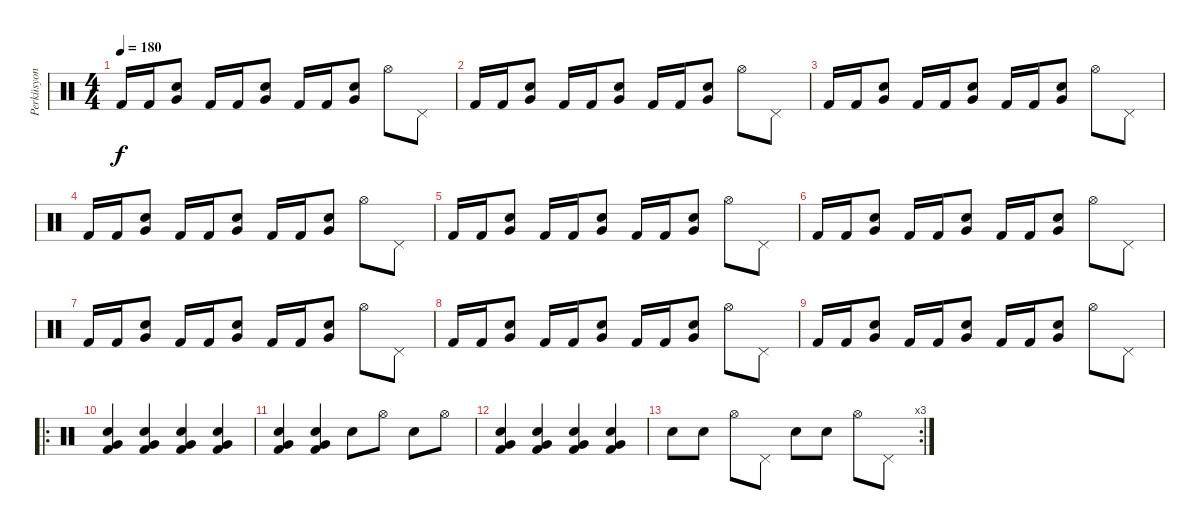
\track ("Perküsyon" "Perküsyon") {instrument percussion}
\staff {score}
\articulation defaults
\ts (4 4)
\tempo 180
\clef neutral
\ks c "Kick (hit) 2".16{dy f volume 8} "Kick (hit) 2".16
("Electric Snare (hit)" "Very Low Tom (hit)").8 "Kick (hit) 2".16 "Kick (hit) 2".16 ("Electric Snare (hit)" "Very Low Tom (hit)").8 "Kick (hit) 2".16 "Kick (hit) 2".16 ("Electric Snare (hit)" "Very Low Tom (hit)").8 "Hi-Hat (open)".8 "Pedal Hi-Hat (hit)".8 |
"Kick (hit) 2".16{volume 9} "Kick (hit) 2".16 ("Electric Snare (hit)" "Very Low Tom (hit)").8 "Kick (hit) 2".16 "Kick (hit) 2".16 ("Electric Snare (hit)" "Very Low Tom (hit)").8 "Kick (hit) 2".16 "Kick (hit) 2".16 ("Electric Snare (hit)" "Very Low Tom (hit)").8 "Hi-Hat (open)".8 "Pedal Hi-Hat (hit)".8 |
"Kick (hit) 2".16{volume 10} "Kick (hit) 2".16 ("Electric Snare (hit)" "Very Low Tom (hit)").8 "Kick (hit) 2".16 "Kick (hit) 2".16 ("Electric Snare (hit)" "Very Low Tom (hit)").8 "Kick (hit) 2".16 "Kick (hit) 2".16 ("Electric Snare (hit)" "Very Low Tom (hit)").8 "Hi-Hat (open)".8 "Pedal Hi-Hat (hit)".8 |
"Kick (hit) 2".16{volume 11} "Kick (hit) 2".16 ("Electric Snare (hit)" "Very Low Tom (hit)").8 "Kick (hit) 2".16 "Kick (hit) 2".16 ("Electric Snare (hit)" "Very Low Tom (hit)").8 "Kick (hit) 2".16 "Kick (hit) 2".16 ("Electric Snare (hit)" "Very Low Tom (hit)").8 "Hi-Hat (open)".8 "Pedal Hi-Hat (hit)".8 |
"Kick (hit) 2".16{volume 12} "Kick (hit) 2".16 ("Electric Snare (hit)" "Very Low Tom (hit)").8 "Kick (hit) 2".16 "Kick (hit) 2".16 ("Electric Snare (hit)" "Very Low Tom (hit)").8 "Kick (hit) 2".16 "Kick (hit) 2".16 ("Electric Snare (hit)" "Very Low Tom (hit)").8 "Hi-Hat (open)".8 "Pedal Hi-Hat (hit)".8 |
"Kick (hit) 2".16{volume 13} "Kick (hit) 2".16 ("Electric Snare (hit)" "Very Low Tom (hit)").8 "Kick (hit) 2".16 "Kick (hit) 2".16 ("Electric Snare (hit)" "Very Low Tom (hit)").8 "Kick (hit) 2".16 "Kick (hit) 2".16 ("Electric Snare (hit)" "Very Low Tom (hit)").8 "Hi-Hat (open)".8 "Pedal Hi-Hat (hit)".8 |
"Kick (hit) 2".16{volume 14} "Kick (hit) 2".16 ("Electric Snare (hit)" "Very Low Tom (hit)").8 "Kick (hit) 2".16 "Kick (hit) 2".16 ("Electric Snare (hit)" "Very Low Tom (hit)").8 "Kick (hit) 2".16 "Kick (hit) 2".16 ("Electric Snare (hit)" "Very Low Tom (hit)").8 "Hi-Hat (open)".8 "Pedal Hi-Hat (hit)".8 |
"Kick (hit) 2".16{volume 15} "Kick (hit) 2".16 ("Electric Snare (hit)" "Very Low Tom (hit)").8 "Kick (hit) 2".16 "Kick (hit) 2".16 ("Electric Snare (hit)" "Very Low Tom (hit)").8 "Kick (hit) 2".16 "Kick (hit) 2".16 ("Electric Snare (hit)" "Very Low Tom (hit)").8 "Hi-Hat (open)".8 "Pedal Hi-Hat (hit)".8 |
"Kick (hit) 2".16{volume 16} "Kick (hit) 2".16 ("Electric Snare (hit)" "Very Low Tom (hit)").8 "Kick (hit) 2".16 "Kick (hit) 2".16 ("Electric Snare (hit)" "Very Low Tom (hit)").8 "Kick (hit) 2".16 "Kick (hit) 2".16 ("Electric Snare (hit)" "Very Low Tom (hit)").8 "Hi-Hat (open)".8 "Pedal Hi-Hat (hit)".8 |
\ro
("Kick (hit) 2" "Very Low Tom (hit)" "Electric Snare (hit)").4 ("Kick (hit) 2" "Very Low Tom (hit)" "Electric Snare (hit)").4 ("Kick (hit) 2" "Very Low Tom (hit)" "Electric Snare (hit)").4 ("Kick (hit) 2" "Very Low Tom (hit)" "Electric Snare (hit)").4 |
("Kick (hit) 2" "Very Low Tom (hit)" "Electric Snare (hit)").4 ("Kick (hit) 2" "Very Low Tom (hit)" "Electric Snare (hit)").4 "Electric Snare (hit)".8 "Hi-Hat (open)".8 "Electric Snare (hit)".8 "Hi-Hat (open)".8 |
("Kick (hit) 2" "Very Low Tom (hit)" "Electric Snare (hit)").4 ("Kick (hit) 2" "Very Low Tom (hit)" "Electric Snare (hit)").4 ("Kick (hit) 2" "Very Low Tom (hit)" "Electric Snare (hit)").4 ("Kick (hit) 2" "Very Low Tom (hit)" "Electric Snare (hit)").4 |
\rc 3 "Electric Snare (hit)".8 "Electric Snare (hit)".8 "Hi-Hat (open)".8 "Pedal Hi-Hat (hit)".8 "Electric Snare (hit)".8 "Electric Snare (hit)".8 "Hi-Hat (open)".8 "Pedal Hi-Hat (hit)".8
